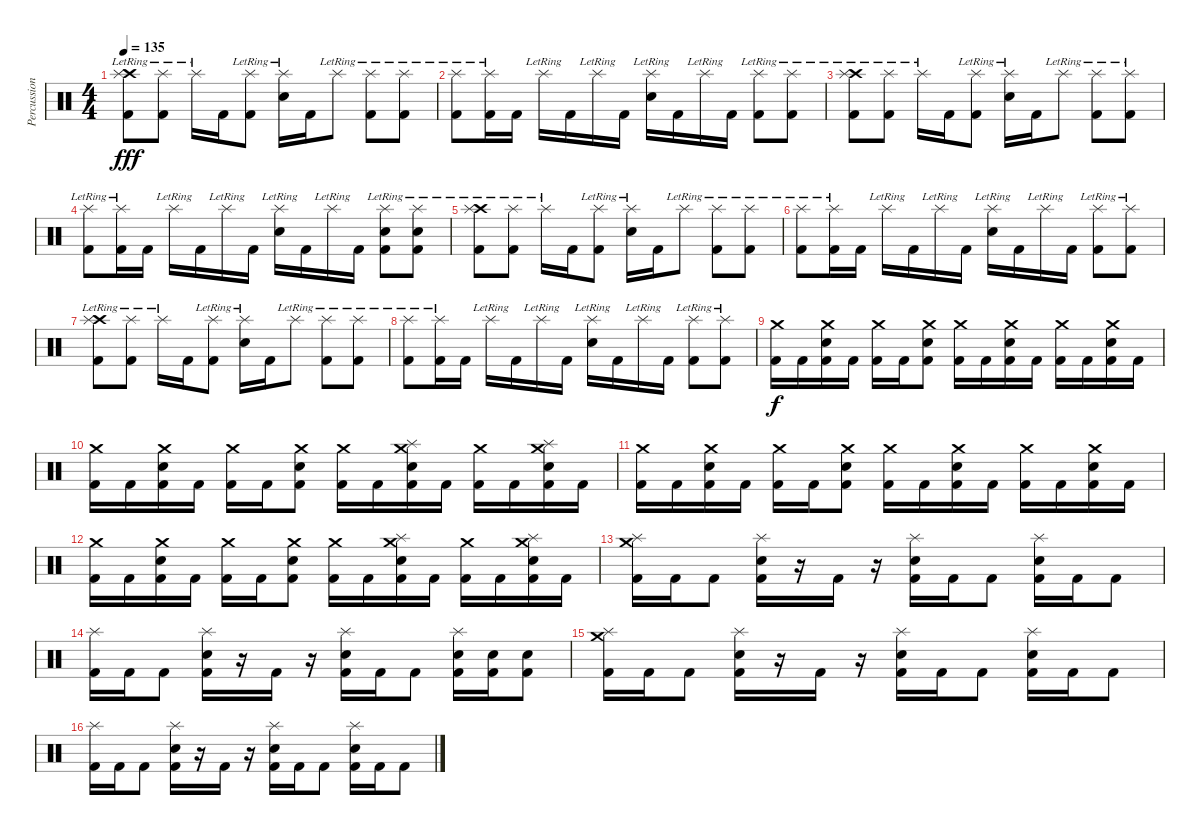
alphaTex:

\track ("Percussion" "Percussion") {instrument percussion}
\staff {score}
\articulation defaults
\ts (4 4)
\tempo 135
\clef neutral
\ks c
("Crash high (hit)"{lr} "Splash (hit)"{lr} "Kick (hit) 2").8{dy fff} ("Splash (hit)"{lr} "Kick (hit) 2").8 "Splash (hit)"{lr}.16 "Kick (hit) 2".16 ("Splash (hit)"{lr} "Kick (hit) 2").8 ("Splash (hit)"{lr} "Electric Snare (hit)").16 "Kick (hit) 2".16 "Splash (hit)"{lr}.8 ("Splash (hit)"{lr} "Kick (hit) 2").8 ("Splash (hit)"{lr} "Kick (hit) 2").8 |
("Splash (hit)"{lr} "Kick (hit) 2").8 ("Splash (hit)"{lr} "Kick (hit) 2").16 "Kick (hit) 2".16 "Splash (hit)"{lr}.16 "Kick (hit) 2".16 "Splash (hit)"{lr}.16 "Kick (hit) 2".16 ("Splash (hit)"{lr} "Electric Snare (hit)").16 "Kick (hit) 2".16 "Splash (hit)"{lr}.16 "Kick (hit) 2".16 ("Splash (hit)"{lr} "Kick (hit) 2").8 ("Splash (hit)"{lr} "Kick (hit) 2").8 |
("Crash high (hit)"{lr} "Splash (hit)"{lr} "Kick (hit) 2").8 ("Splash (hit)"{lr} "Kick (hit) 2").8 "Splash (hit)"{lr}.16 "Kick (hit) 2".16 ("Splash (hit)"{lr} "Kick (hit) 2").8 ("Splash (hit)"{lr} "Electric Snare (hit)").16 "Kick (hit) 2".16 "Splash (hit)"{lr}.8 ("Splash (hit)"{lr} "Kick (hit) 2").8 ("Splash (hit)"{lr} "Kick (hit) 2").8 |
("Splash (hit)"{lr} "Kick (hit) 2").8 ("Splash (hit)"{lr} "Kick (hit) 2").16 "Kick (hit) 2".16 "Splash (hit)"{lr}.16 "Kick (hit) 2".16 "Splash (hit)"{lr}.16 "Kick (hit) 2".16 ("Splash (hit)"{lr} "Electric Snare (hit)").16 "Kick (hit) 2".16 "Splash (hit)"{lr}.16 "Kick (hit) 2".16 ("Splash (hit)"{lr} "Electric Snare (hit)" "Kick (hit) 2").8 ("Splash (hit)"{lr} "Electric Snare (hit)" "Kick (hit) 2").8 |
("Crash high (hit)"{lr} "Splash (hit)"{lr} "Kick (hit) 2").8 ("Splash (hit)"{lr} "Kick (hit) 2").8 "Splash (hit)"{lr}.16 "Kick (hit) 2".16 ("Splash (hit)"{lr} "Kick (hit) 2").8 ("Splash (hit)"{lr} "Electric Snare (hit)").16 "Kick (hit) 2".16 "Splash (hit)"{lr}.8 ("Splash (hit)"{lr} "Kick (hit) 2").8 ("Splash (hit)"{lr} "Kick (hit) 2").8 |
("Splash (hit)"{lr} "Kick (hit) 2").8 ("Splash (hit)"{lr} "Kick (hit) 2").16 "Kick (hit) 2".16 "Splash (hit)"{lr}.16 "Kick (hit) 2".16 "Splash (hit)"{lr}.16 "Kick (hit) 2".16 ("Splash (hit)"{lr} "Electric Snare (hit)").16 "Kick (hit) 2".16 "Splash (hit)"{lr}.16 "Kick (hit) 2".16 ("Splash (hit)"{lr} "Kick (hit) 2").8 ("Splash (hit)"{lr} "Kick (hit) 2").8 |
("Crash high (hit)"{lr} "Splash (hit)"{lr} "Kick (hit) 2").8 ("Splash (hit)"{lr} "Kick (hit) 2").8 "Splash (hit)"{lr}.16 "Kick (hit) 2".16 ("Splash (hit)"{lr} "Kick (hit) 2").8 ("Splash (hit)"{lr} "Electric Snare (hit)").16 "Kick (hit) 2".16 "Splash (hit)"{lr}.8 ("Splash (hit)"{lr} "Kick (hit) 2").8 ("Splash (hit)"{lr} "Kick (hit) 2").8 |
("Splash (hit)"{lr} "Kick (hit) 2").8 ("Splash (hit)"{lr} "Kick (hit) 2").16 "Kick (hit) 2".16 "Splash (hit)"{lr}.16 "Kick (hit) 2".16 "Splash (hit)"{lr}.16 "Kick (hit) 2".16 ("Splash (hit)"{lr} "Electric Snare (hit)").16 "Kick (hit) 2".16 "Splash (hit)"{lr}.16 "Kick (hit) 2".16 ("Splash (hit)"{lr} "Kick (hit) 2").8 ("Splash (hit)"{lr} "Kick (hit) 2").8 |
("Crash medium (hit)" "Kick (hit) 2").16{dy f} "Kick (hit) 2".16 ("Crash medium (hit)" "Electric Snare (hit)" "Kick (hit) 2").16 "Kick (hit) 2".16 ("Crash medium (hit)" "Kick (hit) 2").16 "Kick (hit) 2".16 ("Crash medium (hit)" "Electric Snare (hit)" "Kick (hit) 2").8 ("Crash medium (hit)" "Kick (hit) 2").16 "Kick (hit) 2".16 ("Crash medium (hit)" "Electric Snare (hit)" "Kick (hit) 2").16 "Kick (hit) 2".16 ("Crash medium (hit)" "Kick (hit) 2").16 "Kick (hit) 2".16 ("Crash medium (hit)" "Electric Snare (hit)" "Kick (hit) 2").16 "Kick (hit) 2".16 |
("Crash medium (hit)" "Kick (hit) 2").16 "Kick (hit) 2".16 ("Crash medium (hit)" "Electric Snare (hit)" "Kick (hit) 2").16 "Kick (hit) 2".16 ("Crash medium (hit)" "Kick (hit) 2").16 "Kick (hit) 2".16 ("Crash medium (hit)" "Electric Snare (hit)" "Kick (hit) 2").8 ("Crash medium (hit)" "Kick (hit) 2").16 "Kick (hit) 2".16 ("Crash medium (hit)" "Splash (hit)" "Electric Snare (hit)" "Kick (hit) 2").16 "Kick (hit) 2".16 ("Crash medium (hit)" "Kick (hit) 2").16 "Kick (hit) 2".16 ("Crash medium (hit)" "Splash (hit)" "Electric Snare (hit)" "Kick (hit) 2").16 "Kick (hit) 2".16 |
("Crash medium (hit)" "Kick (hit) 2").16 "Kick (hit) 2".16 ("Crash medium (hit)" "Electric Snare (hit)" "Kick (hit) 2").16 "Kick (hit) 2".16 ("Crash medium (hit)" "Kick (hit) 2").16 "Kick (hit) 2".16 ("Crash medium (hit)" "Electric Snare (hit)" "Kick (hit) 2").8 ("Crash medium (hit)" "Kick (hit) 2").16 "Kick (hit) 2".16 ("Crash medium (hit)" "Electric Snare (hit)" "Kick (hit) 2").16 "Kick (hit) 2".16 ("Crash medium (hit)" "Kick (hit) 2").16 "Kick (hit) 2".16 ("Crash medium (hit)" "Electric Snare (hit)" "Kick (hit) 2").16 "Kick (hit) 2".16 |
("Crash medium (hit)" "Kick (hit) 2").16 "Kick (hit) 2".16 ("Crash medium (hit)" "Electric Snare (hit)" "Kick (hit) 2").16 "Kick (hit) 2".16 ("Crash medium (hit)" "Kick (hit) 2").16 "Kick (hit) 2".16 ("Crash medium (hit)" "Electric Snare (hit)" "Kick (hit) 2").8 ("Crash medium (hit)" "Kick (hit) 2").16 "Kick (hit) 2".16 ("Crash medium (hit)" "Splash (hit)" "Electric Snare (hit)" "Kick (hit) 2").16 "Kick (hit) 2".16 ("Crash medium (hit)" "Kick (hit) 2").16 "Kick (hit) 2".16 ("Crash medium (hit)" "Splash (hit)" "Electric Snare (hit)" "Kick (hit) 2").16 "Kick (hit) 2".16 |
("Splash (hit)" "Crash medium (hit)" "Kick (hit) 2").16 "Kick (hit) 2".16 "Kick (hit) 2".8 ("Splash (hit)" "Electric Snare (hit)" "Kick (hit) 2").16 r.16 "Kick (hit) 2".16 r.16 ("Splash (hit)" "Electric Snare (hit)" "Kick (hit) 2").16 "Kick (hit) 2".16 "Kick (hit) 2".8 ("Splash (hit)" "Electric Snare (hit)" "Kick (hit) 2").16 "Kick (hit) 2".16 "Kick (hit) 2".8 |
("Splash (hit)" "Kick (hit) 2").16 "Kick (hit) 2".16 "Kick (hit) 2".8 ("Splash (hit)" "Electric Snare (hit)" "Kick (hit) 2").16 r.16 "Kick (hit) 2".16 r.16 ("Splash (hit)" "Electric Snare (hit)" "Kick (hit) 2").16 "Kick (hit) 2".16 "Kick (hit) 2".8 ("Splash (hit)" "Electric Snare (hit)" "Kick (hit) 2").16 ("Electric Snare (hit)" "Kick (hit) 2").16 ("Electric Snare (hit)" "Kick (hit) 2").8 |
("Splash (hit)" "Crash medium (hit)" "Kick (hit) 2").16 "Kick (hit) 2".16 "Kick (hit) 2".8 ("Splash (hit)" "Electric Snare (hit)" "Kick (hit) 2").16 r.16 "Kick (hit) 2".16 r.16 ("Splash (hit)" "Electric Snare (hit)" "Kick (hit) 2").16 "Kick (hit) 2".16 "Kick (hit) 2".8 ("Splash (hit)" "Electric Snare (hit)" "Kick (hit) 2").16 "Kick (hit) 2".16 "Kick (hit) 2".8 |
("Splash (hit)" "Kick (hit) 2").16 "Kick (hit) 2".16 "Kick (hit) 2".8 ("Splash (hit)" "Electric Snare (hit)" "Kick (hit) 2").16 r.16 "Kick (hit) 2".16 r.16 ("Splash (hit)" "Electric Snare (hit)" "Kick (hit) 2").16 "Kick (hit) 2".16 "Kick (hit) 2".8 ("Splash (hit)" "Electric Snare (hit)" "Kick (hit) 2").16 "Kick (hit) 2".16 "Kick (hit) 2".8
